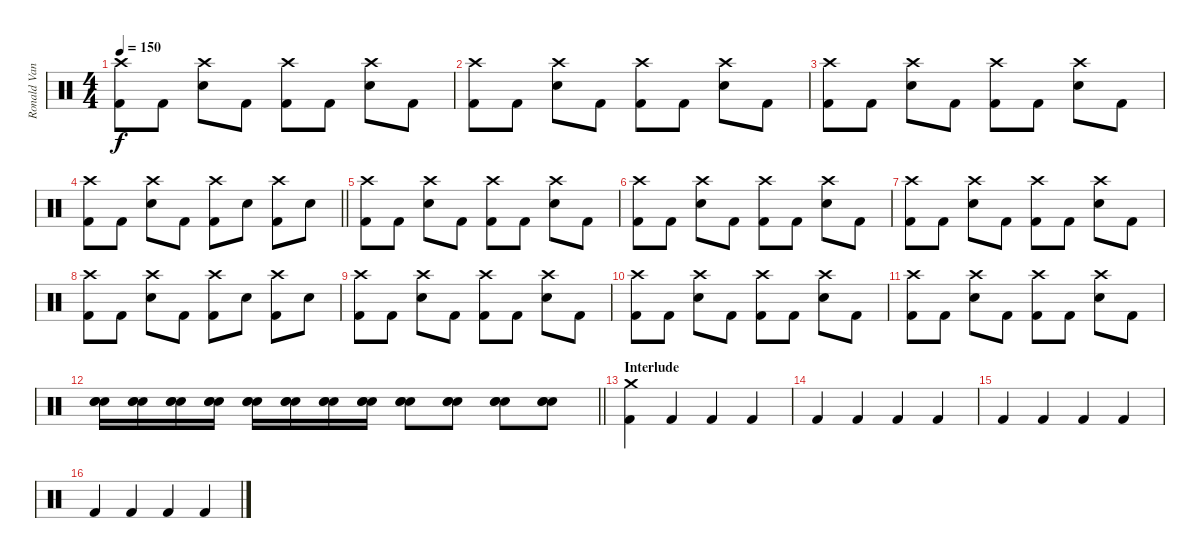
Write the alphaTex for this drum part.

\track ("Ronald Vanucci Jr (Drums)" "Ronald Van") {instrument percussion}
\staff {score}
\articulation defaults
\ts (4 4)
\tempo 150
\clef neutral
\ks c
("Crash high (hit)" "Kick (hit) 2").8{dy f} "Kick (hit) 2".8 ("Crash high (hit)" "Snare (hit) 2").8 "Kick (hit) 2".8 ("Crash high (hit)" "Kick (hit) 2").8 "Kick (hit) 2".8 ("Crash high (hit)" "Snare (hit) 2").8 "Kick (hit) 2".8 |
("Crash high (hit)" "Kick (hit) 2").8 "Kick (hit) 2".8 ("Crash high (hit)" "Snare (hit) 2").8 "Kick (hit) 2".8 ("Crash high (hit)" "Kick (hit) 2").8 "Kick (hit) 2".8 ("Crash high (hit)" "Snare (hit) 2").8 "Kick (hit) 2".8 |
("Crash high (hit)" "Kick (hit) 2").8 "Kick (hit) 2".8 ("Crash high (hit)" "Snare (hit) 2").8 "Kick (hit) 2".8 ("Crash high (hit)" "Kick (hit) 2").8 "Kick (hit) 2".8 ("Crash high (hit)" "Snare (hit) 2").8 "Kick (hit) 2".8 |
\barLineRight lightlight
("Crash high (hit)" "Kick (hit) 2").8 "Kick (hit) 2".8 ("Crash high (hit)" "Snare (hit) 2").8 "Kick (hit) 2".8 ("Crash high (hit)" "Kick (hit) 2").8 "Snare (hit) 2".8 ("Crash high (hit)" "Kick (hit) 2").8 "Snare (hit) 2".8 |
("Crash high (hit)" "Kick (hit) 2").8 "Kick (hit) 2".8 ("Crash high (hit)" "Snare (hit) 2").8 "Kick (hit) 2".8 ("Crash high (hit)" "Kick (hit) 2").8 "Kick (hit) 2".8 ("Crash high (hit)" "Snare (hit) 2").8 "Kick (hit) 2".8 |
("Crash high (hit)" "Kick (hit) 2").8 "Kick (hit) 2".8 ("Crash high (hit)" "Snare (hit) 2").8 "Kick (hit) 2".8 ("Crash high (hit)" "Kick (hit) 2").8 "Kick (hit) 2".8 ("Crash high (hit)" "Snare (hit) 2").8 "Kick (hit) 2".8 |
("Crash high (hit)" "Kick (hit) 2").8 "Kick (hit) 2".8 ("Crash high (hit)" "Snare (hit) 2").8 "Kick (hit) 2".8 ("Crash high (hit)" "Kick (hit) 2").8 "Kick (hit) 2".8 ("Crash high (hit)" "Snare (hit) 2").8 "Kick (hit) 2".8 |
("Crash high (hit)" "Kick (hit) 2").8 "Kick (hit) 2".8 ("Crash high (hit)" "Snare (hit) 2").8 "Kick (hit) 2".8 ("Crash high (hit)" "Kick (hit) 2").8 "Snare (hit) 2".8 ("Crash high (hit)" "Kick (hit) 2").8 "Snare (hit) 2".8 |
("Crash high (hit)" "Kick (hit) 2").8 "Kick (hit) 2".8 ("Crash high (hit)" "Snare (hit) 2").8 "Kick (hit) 2".8 ("Crash high (hit)" "Kick (hit) 2").8 "Kick (hit) 2".8 ("Crash high (hit)" "Snare (hit) 2").8 "Kick (hit) 2".8 |
("Crash high (hit)" "Kick (hit) 2").8 "Kick (hit) 2".8 ("Crash high (hit)" "Snare (hit) 2").8 "Kick (hit) 2".8 ("Crash high (hit)" "Kick (hit) 2").8 "Kick (hit) 2".8 ("Crash high (hit)" "Snare (hit) 2").8 "Kick (hit) 2".8 |
("Crash high (hit)" "Kick (hit) 2").8 "Kick (hit) 2".8 ("Crash high (hit)" "Snare (hit) 2").8 "Kick (hit) 2".8 ("Crash high (hit)" "Kick (hit) 2").8 "Kick (hit) 2".8 ("Crash high (hit)" "Snare (hit) 2").8 "Kick (hit) 2".8 |
\barLineRight lightlight
("Hand Clap (hit)" "Electric Snare (hit)" "Snare (hit) 2").16 ("Hand Clap (hit)" "Electric Snare (hit)" "Snare (hit) 2").16 ("Hand Clap (hit)" "Electric Snare (hit)" "Snare (hit) 2").16 ("Hand Clap (hit)" "Electric Snare (hit)" "Snare (hit) 2").16 ("Hand Clap (hit)" "Electric Snare (hit)" "Snare (hit) 2").16 ("Hand Clap (hit)" "Electric Snare (hit)" "Snare (hit) 2").16 ("Hand Clap (hit)" "Electric Snare (hit)" "Snare (hit) 2").16 ("Hand Clap (hit)" "Electric Snare (hit)" "Snare (hit) 2").16 ("Hand Clap (hit)" "Electric Snare (hit)" "Snare (hit) 2").8 ("Hand Clap (hit)" "Electric Snare (hit)" "Snare (hit) 2").8 ("Hand Clap (hit)" "Electric Snare (hit)" "Snare (hit) 2").8 ("Hand Clap (hit)" "Electric Snare (hit)" "Snare (hit) 2").8 |
\section ("" "Interlude")
("Crash medium (hit)" "Kick (hit) 2").4 "Kick (hit) 2".4 "Kick (hit) 2".4 "Kick (hit) 2".4 |
"Kick (hit) 2".4 "Kick (hit) 2".4 "Kick (hit) 2".4 "Kick (hit) 2".4 |
"Kick (hit) 2".4 "Kick (hit) 2".4 "Kick (hit) 2".4 "Kick (hit) 2".4 |
"Kick (hit) 2".4 "Kick (hit) 2".4 "Kick (hit) 2".4 "Kick (hit) 2".4
